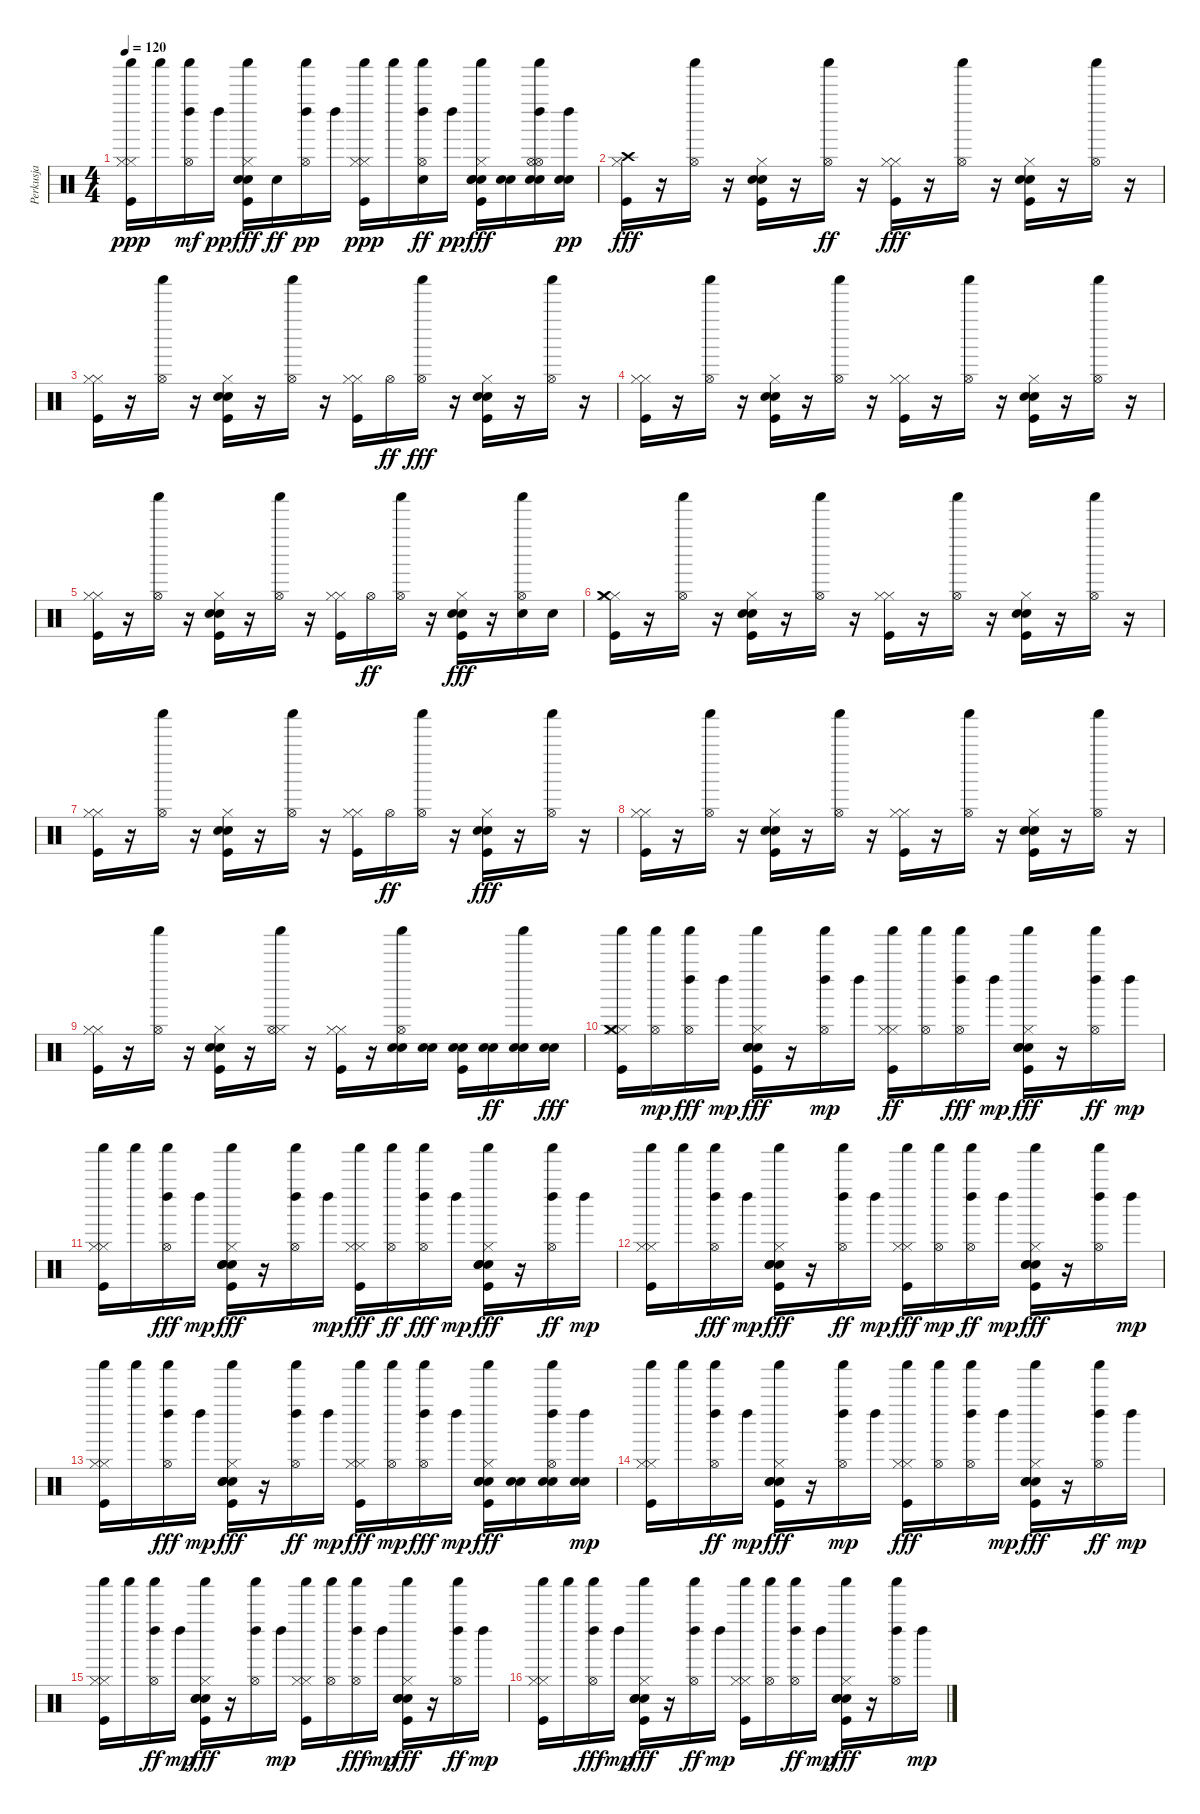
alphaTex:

\track ("Perkusja" "Perkusja") {instrument percussion}
\staff {score}
\articulation defaults
\ts (4 4)
\tempo 120
\clef neutral
\ks c
("Hi-Hat (closed)" "Kick (hit)" "Hi-Hat (closed)" "Shaker (hit)").16{dy ppp} "Shaker (hit)".16 ("Hi-Hat (open)" "Left Maraca (hit)" "Shaker (hit)").16{dy mf} "Left Maraca (hit)".16{dy pp} ("Kick (hit)" "Hand Clap (hit)" "Hi-Hat (closed)" "Shaker (hit)" "Electric Snare (hit)").16{dy fff} "Electric Snare (hit)".16{dy ff} ("Hi-Hat (open)" "Left Maraca (hit)" "Shaker (hit)").16{dy pp} "Left Maraca (hit)".16 ("Hi-Hat (closed)" "Kick (hit)" "Hi-Hat (closed)" "Shaker (hit)").16{dy ppp} "Shaker (hit)".16 ("Hi-Hat (open)" "Left Maraca (hit)" "Shaker (hit)" "Electric Snare (hit)").16{dy ff} "Left Maraca (hit)".16{dy pp} ("Kick (hit)" "Snare (hit) 2" "Hand Clap (hit)" "Electric Snare (hit)" "Hi-Hat (closed)" "Shaker (hit)").16{dy fff} ("Snare (hit) 2" "Electric Snare (hit)").16 ("Snare (hit) 2" "Electric Snare (hit)" "Hi-Hat (open)" "Left Maraca (hit)" "Shaker (hit)" "Hi-Hat (open)").16 ("Snare (hit) 2" "Electric Snare (hit)" "Left Maraca (hit)").16{dy pp} |
("Hi-Hat (closed)" "Kick (hit)" "Crash high (hit)").16{dy fff} r.16 ("Hi-Hat (open)" "Shaker (hit)").16 r.16 ("Kick (hit)" "Electric Snare (hit)" "Hi-Hat (closed)" "Hand Clap (hit)").16 r.16 ("Hi-Hat (open)" "Shaker (hit)").16{dy ff} r.16 ("Hi-Hat (closed)" "Kick (hit)" "Hi-Hat (closed)").16{dy fff} r.16 ("Hi-Hat (open)" "Shaker (hit)").16 r.16 ("Kick (hit)" "Hand Clap (hit)" "Electric Snare (hit)" "Hi-Hat (closed)").16 r.16 ("Hi-Hat (open)" "Shaker (hit)").16 r.16 |
("Hi-Hat (closed)" "Kick (hit)" "Hi-Hat (closed)").16 r.16 ("Hi-Hat (open)" "Shaker (hit)").16 r.16 ("Kick (hit)" "Electric Snare (hit)" "Hi-Hat (closed)" "Hand Clap (hit)").16 r.16 ("Hi-Hat (open)" "Shaker (hit)").16 r.16 ("Hi-Hat (closed)" "Kick (hit)" "Hi-Hat (closed)").16 "Hi-Hat (open)".16{dy ff} ("Hi-Hat (open)" "Shaker (hit)").16{dy fff} r.16 ("Kick (hit)" "Hand Clap (hit)" "Electric Snare (hit)" "Hi-Hat (closed)").16 r.16 ("Hi-Hat (open)" "Shaker (hit)").16 r.16 |
("Hi-Hat (closed)" "Kick (hit)" "Hi-Hat (closed)").16 r.16 ("Shaker (hit)" "Hi-Hat (open)").16 r.16 ("Electric Snare (hit)" "Kick (hit)" "Hand Clap (hit)" "Hi-Hat (closed)").16 r.16 ("Hi-Hat (open)" "Shaker (hit)").16 r.16 ("Hi-Hat (closed)" "Kick (hit)" "Hi-Hat (closed)").16 r.16 ("Hi-Hat (open)" "Shaker (hit)").16 r.16 ("Kick (hit)" "Hand Clap (hit)" "Electric Snare (hit)" "Hi-Hat (closed)").16 r.16 ("Hi-Hat (open)" "Shaker (hit)").16 r.16 |
("Hi-Hat (closed)" "Kick (hit)" "Hi-Hat (closed)").16 r.16 ("Hi-Hat (open)" "Shaker (hit)").16 r.16 ("Kick (hit)" "Hand Clap (hit)" "Electric Snare (hit)" "Hi-Hat (closed)").16 r.16 ("Hi-Hat (open)" "Shaker (hit)").16 r.16 ("Hi-Hat (closed)" "Kick (hit)" "Hi-Hat (closed)").16 "Hi-Hat (open)".16{dy ff} ("Hi-Hat (open)" "Shaker (hit)").16 r.16 ("Kick (hit)" "Electric Snare (hit)" "Hi-Hat (closed)" "Hand Clap (hit)").16{dy fff} r.16 ("Electric Snare (hit)" "Hi-Hat (open)" "Shaker (hit)").16 "Electric Snare (hit)".16 |
("Hi-Hat (closed)" "Kick (hit)" "Hi-Hat (closed)" "Crash medium (hit)").16 r.16 ("Hi-Hat (open)" "Shaker (hit)").16 r.16 ("Kick (hit)" "Hand Clap (hit)" "Electric Snare (hit)" "Hi-Hat (closed)").16 r.16 ("Hi-Hat (open)" "Shaker (hit)").16 r.16 ("Hi-Hat (closed)" "Kick (hit)" "Hi-Hat (closed)").16 r.16 ("Hi-Hat (open)" "Shaker (hit)").16 r.16 ("Kick (hit)" "Electric Snare (hit)" "Hi-Hat (closed)" "Hand Clap (hit)").16 r.16 ("Hi-Hat (open)" "Shaker (hit)").16 r.16 |
("Hi-Hat (closed)" "Kick (hit)" "Hi-Hat (closed)").16 r.16 ("Hi-Hat (open)" "Shaker (hit)").16 r.16 ("Kick (hit)" "Hand Clap (hit)" "Electric Snare (hit)" "Hi-Hat (closed)").16 r.16 ("Hi-Hat (open)" "Shaker (hit)").16 r.16 ("Hi-Hat (closed)" "Kick (hit)" "Hi-Hat (closed)").16 "Hi-Hat (open)".16{dy ff} ("Hi-Hat (open)" "Shaker (hit)").16 r.16 ("Kick (hit)" "Electric Snare (hit)" "Hi-Hat (closed)" "Hand Clap (hit)").16{dy fff} r.16 ("Hi-Hat (open)" "Shaker (hit)").16 r.16 |
("Hi-Hat (closed)" "Kick (hit)" "Hi-Hat (closed)").16 r.16 ("Hi-Hat (open)" "Shaker (hit)").16 r.16 ("Electric Snare (hit)" "Kick (hit)" "Hand Clap (hit)" "Hi-Hat (closed)").16 r.16 ("Hi-Hat (open)" "Shaker (hit)").16 r.16 ("Hi-Hat (closed)" "Kick (hit)" "Hi-Hat (closed)").16 r.16 ("Hi-Hat (open)" "Shaker (hit)").16 r.16 ("Kick (hit)" "Electric Snare (hit)" "Hi-Hat (closed)" "Hand Clap (hit)").16 r.16 ("Hi-Hat (open)" "Shaker (hit)").16 r.16 |
("Hi-Hat (closed)" "Kick (hit)" "Hi-Hat (closed)").16 r.16 ("Hi-Hat (open)" "Shaker (hit)").16 r.16 ("Kick (hit)" "Electric Snare (hit)" "Hi-Hat (closed)" "Hand Clap (hit)").16 r.16 ("Hi-Hat (closed)" "Hi-Hat (open)" "Shaker (hit)").16 r.16 ("Hi-Hat (closed)" "Kick (hit)" "Hi-Hat (closed)").16 r.16 ("Snare (hit) 2" "Electric Snare (hit)" "Hi-Hat (open)" "Shaker (hit)").16 ("Snare (hit) 2" "Electric Snare (hit)").16 ("Kick (hit)" "Snare (hit) 2" "Electric Snare (hit)").16 ("Snare (hit) 2" "Electric Snare (hit)").16{dy ff} ("Snare (hit) 2" "Electric Snare (hit)" "Shaker (hit)").16 ("Snare (hit) 2" "Electric Snare (hit)").16{dy fff} |
("Hi-Hat (closed)" "Kick (hit)" "Hi-Hat (closed)" "Shaker (hit)" "Crash medium (hit)").16 ("Hi-Hat (open)" "Shaker (hit)").16{dy mp} ("Hi-Hat (open)" "Left Maraca (hit)" "Shaker (hit)").16{dy fff} "Left Maraca (hit)".16{dy mp} ("Kick (hit)" "Snare (hit) 2" "Electric Snare (hit)" "Hi-Hat (closed)" "Shaker (hit)" "Hand Clap (hit)").16{dy fff} r.16 ("Hi-Hat (open)" "Left Maraca (hit)" "Shaker (hit)").16{dy mp} "Left Maraca (hit)".16 ("Hi-Hat (closed)" "Kick (hit)" "Shaker (hit)" "Hi-Hat (closed)").16{dy ff} ("Shaker (hit)" "Hi-Hat (open)").16 ("Hi-Hat (open)" "Left Maraca (hit)" "Shaker (hit)").16{dy fff} "Left Maraca (hit)".16{dy mp} ("Kick (hit)" "Snare (hit) 2" "Hand Clap (hit)" "Electric Snare (hit)" "Hi-Hat (closed)" "Shaker (hit)").16{dy fff} r.16 ("Hi-Hat (open)" "Left Maraca (hit)" "Shaker (hit)").16{dy ff} "Left Maraca (hit)".16{dy mp} |
("Hi-Hat (closed)" "Kick (hit)" "Hi-Hat (closed)" "Shaker (hit)").16 "Shaker (hit)".16 ("Hi-Hat (open)" "Left Maraca (hit)" "Shaker (hit)").16{dy fff} "Left Maraca (hit)".16{dy mp} ("Kick (hit)" "Snare (hit) 2" "Electric Snare (hit)" "Hi-Hat (closed)" "Shaker (hit)" "Hand Clap (hit)").16{dy fff} r.16 ("Hi-Hat (open)" "Left Maraca (hit)" "Shaker (hit)").16 "Left Maraca (hit)".16{dy mp} ("Hi-Hat (closed)" "Kick (hit)" "Shaker (hit)" "Hi-Hat (closed)").16{dy fff} ("Shaker (hit)" "Hi-Hat (open)").16{dy ff} ("Hi-Hat (open)" "Left Maraca (hit)" "Shaker (hit)").16{dy fff} "Left Maraca (hit)".16{dy mp} ("Kick (hit)" "Snare (hit) 2" "Hand Clap (hit)" "Electric Snare (hit)" "Hi-Hat (closed)" "Shaker (hit)").16{dy fff} r.16 ("Hi-Hat (open)" "Left Maraca (hit)" "Shaker (hit)").16{dy ff} "Left Maraca (hit)".16{dy mp} |
("Hi-Hat (closed)" "Kick (hit)" "Hi-Hat (closed)" "Shaker (hit)").16 "Shaker (hit)".16 ("Hi-Hat (open)" "Left Maraca (hit)" "Shaker (hit)").16{dy fff} "Left Maraca (hit)".16{dy mp} ("Snare (hit) 2" "Electric Snare (hit)" "Kick (hit)" "Hand Clap (hit)" "Hi-Hat (closed)" "Shaker (hit)").16{dy fff} r.16 ("Hi-Hat (open)" "Left Maraca (hit)" "Shaker (hit)").16{dy ff} "Left Maraca (hit)".16{dy mp} ("Hi-Hat (closed)" "Kick (hit)" "Shaker (hit)" "Hi-Hat (closed)").16{dy fff} ("Hi-Hat (open)" "Shaker (hit)").16{dy mp} ("Hi-Hat (open)" "Left Maraca (hit)" "Shaker (hit)").16{dy ff} "Left Maraca (hit)".16{dy mp} ("Kick (hit)" "Snare (hit) 2" "Hand Clap (hit)" "Electric Snare (hit)" "Hi-Hat (closed)" "Shaker (hit)").16{dy fff} r.16 ("Hi-Hat (open)" "Left Maraca (hit)" "Shaker (hit)").16 "Left Maraca (hit)".16{dy mp} |
("Hi-Hat (closed)" "Kick (hit)" "Hi-Hat (closed)" "Shaker (hit)").16 "Shaker (hit)".16 ("Hi-Hat (open)" "Left Maraca (hit)" "Shaker (hit)").16{dy fff} "Left Maraca (hit)".16{dy mp} ("Kick (hit)" "Snare (hit) 2" "Hand Clap (hit)" "Electric Snare (hit)" "Hi-Hat (closed)" "Shaker (hit)").16{dy fff} r.16 ("Hi-Hat (open)" "Left Maraca (hit)" "Shaker (hit)").16{dy ff} "Left Maraca (hit)".16{dy mp} ("Hi-Hat (closed)" "Kick (hit)" "Shaker (hit)" "Hi-Hat (closed)").16{dy fff} ("Hi-Hat (open)" "Shaker (hit)").16{dy mp} ("Hi-Hat (open)" "Left Maraca (hit)" "Shaker (hit)").16{dy fff} "Left Maraca (hit)".16{dy mp} ("Kick (hit)" "Snare (hit) 2" "Electric Snare (hit)" "Hi-Hat (closed)" "Shaker (hit)" "Hand Clap (hit)").16{dy fff} ("Snare (hit) 2" "Electric Snare (hit)").16 ("Snare (hit) 2" "Electric Snare (hit)" "Hi-Hat (open)" "Left Maraca (hit)" "Shaker (hit)").16 ("Snare (hit) 2" "Electric Snare (hit)" "Left Maraca (hit)").16{dy mp} |
("Hi-Hat (closed)" "Kick (hit)" "Hi-Hat (closed)" "Shaker (hit)").16 "Shaker (hit)".16 ("Hi-Hat (open)" "Left Maraca (hit)" "Shaker (hit)").16{dy ff} "Left Maraca (hit)".16{dy mp} ("Kick (hit)" "Snare (hit) 2" "Electric Snare (hit)" "Hi-Hat (closed)" "Shaker (hit)" "Hand Clap (hit)").16{dy fff} r.16 ("Hi-Hat (open)" "Left Maraca (hit)" "Shaker (hit)").16{dy mp} "Left Maraca (hit)".16 ("Hi-Hat (closed)" "Kick (hit)" "Shaker (hit)" "Hi-Hat (closed)").16{dy fff} ("Shaker (hit)" "Hi-Hat (open)").16 ("Left Maraca (hit)" "Shaker (hit)" "Hi-Hat (open)").16 "Left Maraca (hit)".16{dy mp} ("Kick (hit)" "Snare (hit) 2" "Hand Clap (hit)" "Electric Snare (hit)" "Shaker (hit)" "Hi-Hat (closed)").16{dy fff} r.16 ("Hi-Hat (open)" "Left Maraca (hit)" "Shaker (hit)").16{dy ff} "Left Maraca (hit)".16{dy mp} |
("Hi-Hat (closed)" "Kick (hit)" "Hi-Hat (closed)" "Shaker (hit)").16 "Shaker (hit)".16 ("Hi-Hat (open)" "Left Maraca (hit)" "Shaker (hit)").16{dy ff} "Left Maraca (hit)".16{dy mp} ("Kick (hit)" "Snare (hit) 2" "Electric Snare (hit)" "Hi-Hat (closed)" "Shaker (hit)" "Hand Clap (hit)").16{dy fff} r.16 ("Hi-Hat (open)" "Left Maraca (hit)" "Shaker (hit)").16 "Left Maraca (hit)".16{dy mp} ("Hi-Hat (closed)" "Kick (hit)" "Hi-Hat (closed)" "Shaker (hit)").16 ("Hi-Hat (open)" "Shaker (hit)").16 ("Hi-Hat (open)" "Left Maraca (hit)" "Shaker (hit)").16{dy fff} "Left Maraca (hit)".16{dy mp} ("Kick (hit)" "Snare (hit) 2" "Hand Clap (hit)" "Electric Snare (hit)" "Hi-Hat (closed)" "Shaker (hit)").16{dy fff} r.16 ("Hi-Hat (open)" "Left Maraca (hit)" "Shaker (hit)").16{dy ff} "Left Maraca (hit)".16{dy mp} |
("Hi-Hat (closed)" "Kick (hit)" "Hi-Hat (closed)" "Shaker (hit)").16 "Shaker (hit)".16 ("Hi-Hat (open)" "Left Maraca (hit)" "Shaker (hit)").16{dy fff} "Left Maraca (hit)".16{dy mp} ("Snare (hit) 2" "Electric Snare (hit)" "Kick (hit)" "Hand Clap (hit)" "Hi-Hat (closed)" "Shaker (hit)").16{dy fff} r.16 ("Hi-Hat (open)" "Left Maraca (hit)" "Shaker (hit)").16{dy ff} "Left Maraca (hit)".16{dy mp} ("Hi-Hat (closed)" "Kick (hit)" "Hi-Hat (closed)" "Shaker (hit)").16 ("Hi-Hat (open)" "Shaker (hit)").16 ("Hi-Hat (open)" "Left Maraca (hit)" "Shaker (hit)").16{dy ff} "Left Maraca (hit)".16{dy mp} ("Kick (hit)" "Snare (hit) 2" "Hand Clap (hit)" "Electric Snare (hit)" "Hi-Hat (closed)" "Shaker (hit)").16{dy fff} r.16 ("Hi-Hat (open)" "Left Maraca (hit)" "Shaker (hit)").16 "Left Maraca (hit)".16{dy mp}
